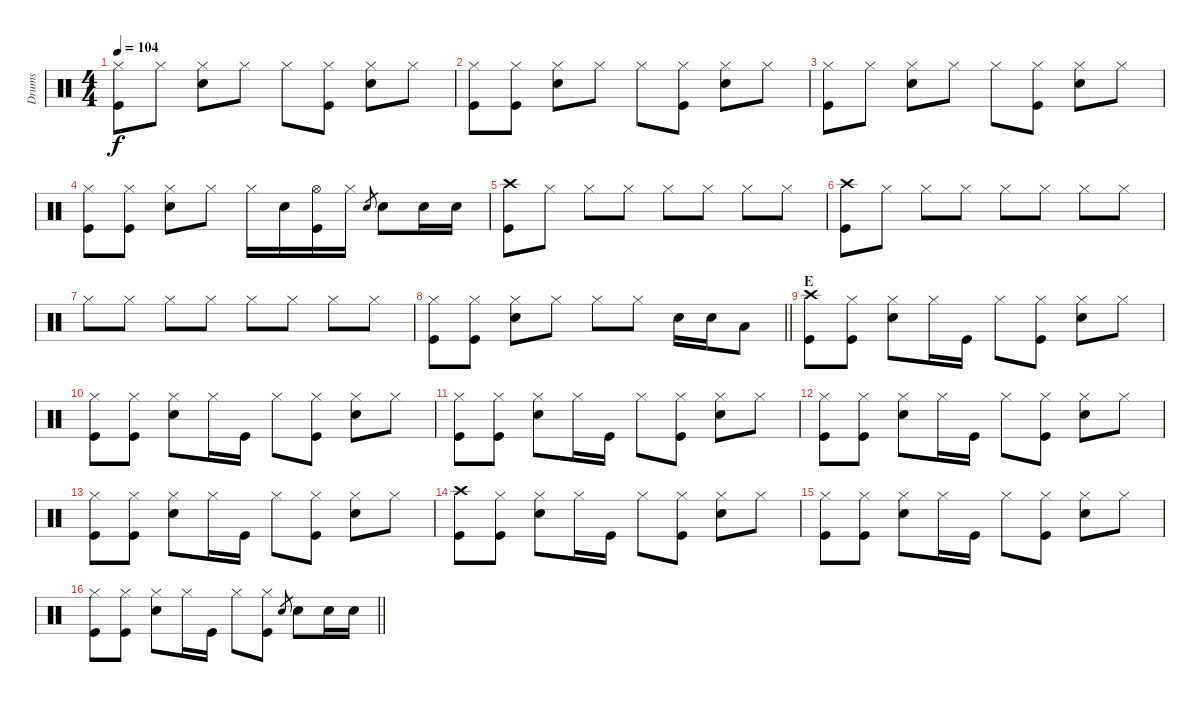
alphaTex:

\track ("Drums" "Drums") {instrument percussion}
\staff {score}
\articulation defaults
\ts (4 4)
\tempo 104
\clef neutral
\ks c
("Hi-Hat (closed)" "Kick (hit)").8{dy f} "Hi-Hat (closed)".8 ("Hi-Hat (closed)" "Electric Snare (hit)").8 "Hi-Hat (closed)".8 "Hi-Hat (closed)".8 ("Hi-Hat (closed)" "Kick (hit)").8 ("Hi-Hat (closed)" "Electric Snare (hit)").8 "Hi-Hat (closed)".8 |
("Hi-Hat (closed)" "Kick (hit)").8 ("Hi-Hat (closed)" "Kick (hit)").8 ("Hi-Hat (closed)" "Electric Snare (hit)").8 "Hi-Hat (closed)".8 "Hi-Hat (closed)".8 ("Hi-Hat (closed)" "Kick (hit)").8 ("Hi-Hat (closed)" "Electric Snare (hit)").8 "Hi-Hat (closed)".8 |
("Hi-Hat (closed)" "Kick (hit)").8 "Hi-Hat (closed)".8 ("Hi-Hat (closed)" "Electric Snare (hit)").8 "Hi-Hat (closed)".8 "Hi-Hat (closed)".8 ("Hi-Hat (closed)" "Kick (hit)").8 ("Hi-Hat (closed)" "Electric Snare (hit)").8 "Hi-Hat (closed)".8 |
("Hi-Hat (closed)" "Kick (hit)").8 ("Hi-Hat (closed)" "Kick (hit)").8 ("Hi-Hat (closed)" "Electric Snare (hit)").8 "Hi-Hat (closed)".8 "Hi-Hat (closed)".16 "Electric Snare (hit)".16 ("Hi-Hat (open)" "Kick (hit)").16 "Hi-Hat (closed)".16 "Electric Snare (hit)".8{gr} "Electric Snare (hit)".8 "Electric Snare (hit)".16 "Electric Snare (hit)".16 |
("Crash high (hit)" "Kick (hit)").8 "Hi-Hat (closed)".8 "Hi-Hat (closed)".8 "Hi-Hat (closed)".8 "Hi-Hat (closed)".8 "Hi-Hat (closed)".8 "Hi-Hat (closed)".8 "Hi-Hat (closed)".8 |
("Crash high (hit)" "Kick (hit)").8 "Hi-Hat (closed)".8 "Hi-Hat (closed)".8 "Hi-Hat (closed)".8 "Hi-Hat (closed)".8 "Hi-Hat (closed)".8 "Hi-Hat (closed)".8 "Hi-Hat (closed)".8 |
"Hi-Hat (closed)".8 "Hi-Hat (closed)".8 "Hi-Hat (closed)".8 "Hi-Hat (closed)".8 "Hi-Hat (closed)".8 "Hi-Hat (closed)".8 "Hi-Hat (closed)".8 "Hi-Hat (closed)".8 |
\barLineRight lightlight
("Hi-Hat (closed)" "Kick (hit)").8 ("Hi-Hat (closed)" "Kick (hit)").8 ("Hi-Hat (closed)" "Electric Snare (hit)").8 "Hi-Hat (closed)".8 "Hi-Hat (closed)".8 "Hi-Hat (closed)".8 "Electric Snare (hit)".16 "Electric Snare (hit)".16 "Low Tom (hit)".8 |
\section ("" "E")
("Crash high (hit)" "Kick (hit)").8 ("Hi-Hat (closed)" "Kick (hit)").8 ("Hi-Hat (closed)" "Electric Snare (hit)").8 "Hi-Hat (closed)".16 "Kick (hit)".16 "Hi-Hat (closed)".8 ("Hi-Hat (closed)" "Kick (hit)").8 ("Hi-Hat (closed)" "Electric Snare (hit)").8 "Hi-Hat (closed)".8 |
("Hi-Hat (closed)" "Kick (hit)").8 ("Hi-Hat (closed)" "Kick (hit)").8 ("Hi-Hat (closed)" "Electric Snare (hit)").8 "Hi-Hat (closed)".16 "Kick (hit)".16 "Hi-Hat (closed)".8 ("Hi-Hat (closed)" "Kick (hit)").8 ("Hi-Hat (closed)" "Electric Snare (hit)").8 "Hi-Hat (closed)".8 |
("Hi-Hat (closed)" "Kick (hit)").8 ("Hi-Hat (closed)" "Kick (hit)").8 ("Hi-Hat (closed)" "Electric Snare (hit)").8 "Hi-Hat (closed)".16 "Kick (hit)".16 "Hi-Hat (closed)".8 ("Hi-Hat (closed)" "Kick (hit)").8 ("Hi-Hat (closed)" "Electric Snare (hit)").8 "Hi-Hat (closed)".8 |
("Hi-Hat (closed)" "Kick (hit)").8 ("Hi-Hat (closed)" "Kick (hit)").8 ("Hi-Hat (closed)" "Electric Snare (hit)").8 "Hi-Hat (closed)".16 "Kick (hit)".16 "Hi-Hat (closed)".8 ("Hi-Hat (closed)" "Kick (hit)").8 ("Hi-Hat (closed)" "Electric Snare (hit)").8 "Hi-Hat (closed)".8 |
("Hi-Hat (closed)" "Kick (hit)").8 ("Hi-Hat (closed)" "Kick (hit)").8 ("Hi-Hat (closed)" "Electric Snare (hit)").8 "Hi-Hat (closed)".16 "Kick (hit)".16 "Hi-Hat (closed)".8 ("Hi-Hat (closed)" "Kick (hit)").8 ("Hi-Hat (closed)" "Electric Snare (hit)").8 "Hi-Hat (closed)".8 |
("Crash high (hit)" "Kick (hit)").8 ("Hi-Hat (closed)" "Kick (hit)").8 ("Hi-Hat (closed)" "Electric Snare (hit)").8 "Hi-Hat (closed)".16 "Kick (hit)".16 "Hi-Hat (closed)".8 ("Hi-Hat (closed)" "Kick (hit)").8 ("Hi-Hat (closed)" "Electric Snare (hit)").8 "Hi-Hat (closed)".8 |
("Hi-Hat (closed)" "Kick (hit)").8 ("Hi-Hat (closed)" "Kick (hit)").8 ("Hi-Hat (closed)" "Electric Snare (hit)").8 "Hi-Hat (closed)".16 "Kick (hit)".16 "Hi-Hat (closed)".8 ("Hi-Hat (closed)" "Kick (hit)").8 ("Hi-Hat (closed)" "Electric Snare (hit)").8 "Hi-Hat (closed)".8 |
\barLineRight lightlight
("Hi-Hat (closed)" "Kick (hit)").8 ("Hi-Hat (closed)" "Kick (hit)").8 ("Hi-Hat (closed)" "Electric Snare (hit)").8 "Hi-Hat (closed)".16 "Kick (hit)".16 "Hi-Hat (closed)".8 ("Hi-Hat (closed)" "Kick (hit)").8 "Electric Snare (hit)".8{gr} "Electric Snare (hit)".8 "Electric Snare (hit)".16 "Electric Snare (hit)".16
